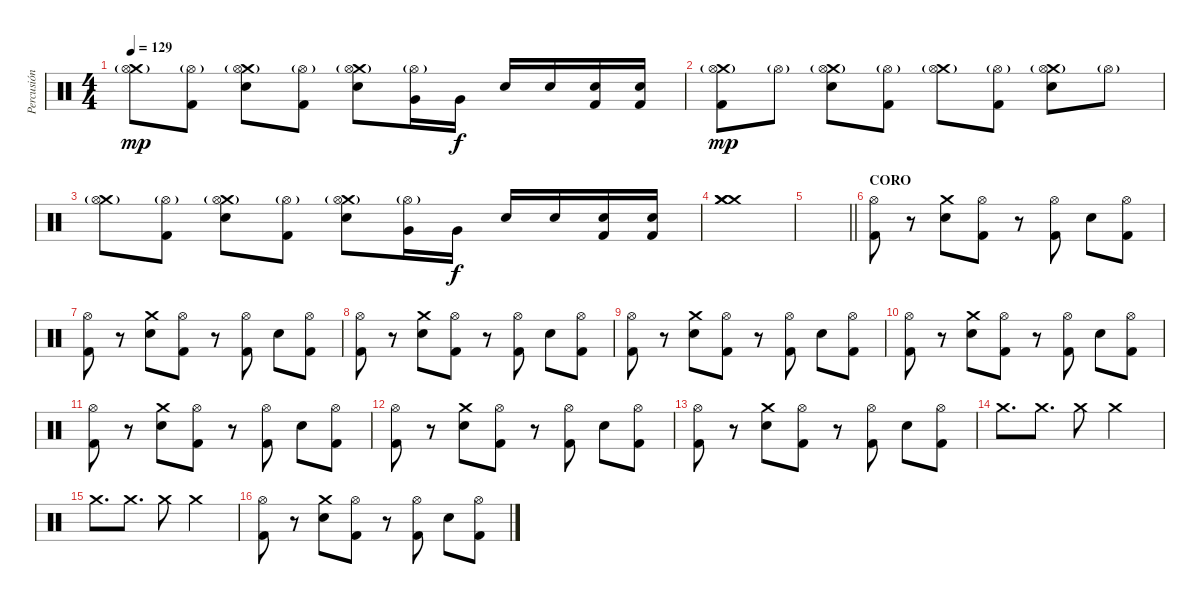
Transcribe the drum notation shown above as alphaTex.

\track ("Percusión" "Percusión") {instrument percussion}
\staff {score}
\articulation defaults
\ts (4 4)
\tempo 129
\clef neutral
\ks c
("Crash medium (hit)"{g} "Hi-Hat (open)").8{dy mp} ("Hi-Hat (open)"{g} "Kick (hit) 2").8 ("Crash medium (hit)"{g} "Hi-Hat (open)" "Snare (hit) 2").8 ("Hi-Hat (open)"{g} "Kick (hit) 2").8 ("Crash medium (hit)"{g} "Hi-Hat (open)" "Snare (hit) 2").8 ("Hi-Hat (open)"{g} "Very Low Tom (hit)").16 "Very Low Tom (hit)".16{dy f} "Snare (hit) 2".16 "Snare (hit) 2".16 ("Snare (hit) 2" "Kick (hit) 2").16 ("Snare (hit) 2" "Kick (hit) 2").16 |
("Crash medium (hit)"{g} "Hi-Hat (open)" "Kick (hit) 2").8{dy mp} "Hi-Hat (open)"{g}.8 ("Crash medium (hit)"{g} "Hi-Hat (open)" "Snare (hit) 2").8 ("Hi-Hat (open)"{g} "Kick (hit) 2").8 ("Crash medium (hit)"{g} "Hi-Hat (open)").8 ("Hi-Hat (open)"{g} "Kick (hit) 2").8 ("Crash medium (hit)"{g} "Hi-Hat (open)" "Snare (hit) 2").8 "Hi-Hat (open)"{g}.8 |
("Crash medium (hit)"{g} "Hi-Hat (open)").8 ("Hi-Hat (open)"{g} "Kick (hit) 2").8 ("Crash medium (hit)"{g} "Hi-Hat (open)" "Snare (hit) 2").8 ("Hi-Hat (open)"{g} "Kick (hit) 2").8 ("Crash medium (hit)"{g} "Hi-Hat (open)" "Snare (hit) 2").8 ("Hi-Hat (open)"{g} "Very Low Tom (hit)").16 "Very Low Tom (hit)".16{dy f} "Snare (hit) 2".16 "Snare (hit) 2".16 ("Snare (hit) 2" "Kick (hit) 2").16 ("Snare (hit) 2" "Kick (hit) 2").16 |
("Crash medium (hit)" "Crash medium (hit)" "Crash medium (hit)").1 |
\barLineRight lightlight
|
\section ("" "CORO")
("Hi-Hat (open)" "Kick (hit) 2").8 r.8 ("Crash medium (hit)" "Snare (hit) 2").8 ("Hi-Hat (open)" "Kick (hit) 2").8 r.8 ("Hi-Hat (open)" "Kick (hit) 2").8 "Snare (hit) 2".8 ("Hi-Hat (open)" "Kick (hit) 2").8 |
("Hi-Hat (open)" "Kick (hit) 2").8 r.8 ("Crash medium (hit)" "Snare (hit) 2").8 ("Hi-Hat (open)" "Kick (hit) 2").8 r.8 ("Hi-Hat (open)" "Kick (hit) 2").8 "Snare (hit) 2".8 ("Hi-Hat (open)" "Kick (hit) 2").8 |
("Hi-Hat (open)" "Kick (hit) 2").8 r.8 ("Crash medium (hit)" "Snare (hit) 2").8 ("Hi-Hat (open)" "Kick (hit) 2").8 r.8 ("Hi-Hat (open)" "Kick (hit) 2").8 "Snare (hit) 2".8 ("Hi-Hat (open)" "Kick (hit) 2").8 |
("Hi-Hat (open)" "Kick (hit) 2").8 r.8 ("Crash medium (hit)" "Snare (hit) 2").8 ("Hi-Hat (open)" "Kick (hit) 2").8 r.8 ("Hi-Hat (open)" "Kick (hit) 2").8 "Snare (hit) 2".8 ("Hi-Hat (open)" "Kick (hit) 2").8 |
("Hi-Hat (open)" "Kick (hit) 2").8 r.8 ("Crash medium (hit)" "Snare (hit) 2").8 ("Hi-Hat (open)" "Kick (hit) 2").8 r.8 ("Hi-Hat (open)" "Kick (hit) 2").8 "Snare (hit) 2".8 ("Hi-Hat (open)" "Kick (hit) 2").8 |
("Hi-Hat (open)" "Kick (hit) 2").8 r.8 ("Crash medium (hit)" "Snare (hit) 2").8 ("Hi-Hat (open)" "Kick (hit) 2").8 r.8 ("Hi-Hat (open)" "Kick (hit) 2").8 "Snare (hit) 2".8 ("Hi-Hat (open)" "Kick (hit) 2").8 |
("Hi-Hat (open)" "Kick (hit) 2").8 r.8 ("Crash medium (hit)" "Snare (hit) 2").8 ("Hi-Hat (open)" "Kick (hit) 2").8 r.8 ("Hi-Hat (open)" "Kick (hit) 2").8 "Snare (hit) 2".8 ("Hi-Hat (open)" "Kick (hit) 2").8 |
("Hi-Hat (open)" "Kick (hit) 2").8 r.8 ("Crash medium (hit)" "Snare (hit) 2").8 ("Hi-Hat (open)" "Kick (hit) 2").8 r.8 ("Hi-Hat (open)" "Kick (hit) 2").8 "Snare (hit) 2".8 ("Hi-Hat (open)" "Kick (hit) 2").8 |
"Crash medium (hit)".8{d} "Crash medium (hit)".8{d} "Crash medium (hit)".8 "Crash medium (hit)".2 |
"Crash medium (hit)".8{d} "Crash medium (hit)".8{d} "Crash medium (hit)".8 "Crash medium (hit)".2 |
("Hi-Hat (open)" "Kick (hit) 2").8 r.8 ("Crash medium (hit)" "Snare (hit) 2").8 ("Hi-Hat (open)" "Kick (hit) 2").8 r.8 ("Hi-Hat (open)" "Kick (hit) 2").8 "Snare (hit) 2".8 ("Hi-Hat (open)" "Kick (hit) 2").8
